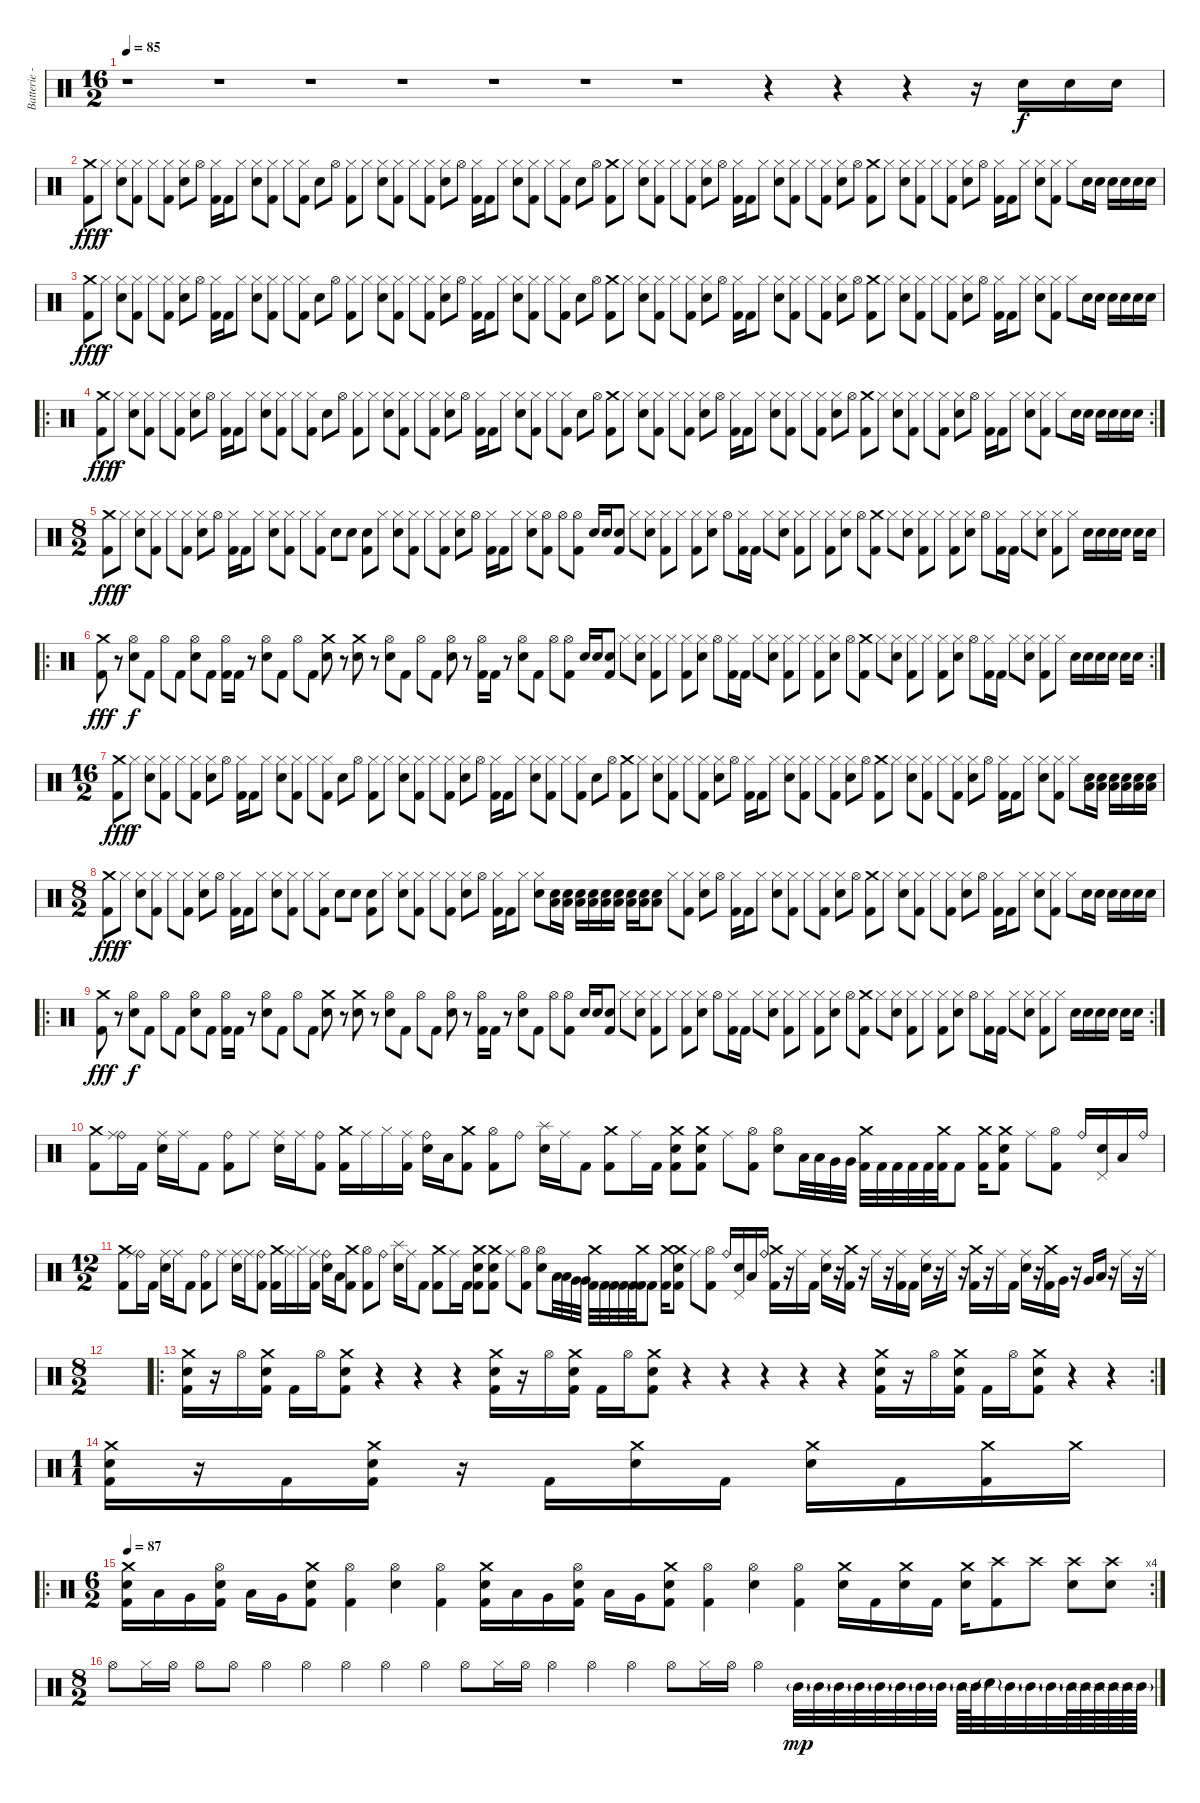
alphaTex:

\track ("Batterie - " "Batterie -") {instrument percussion}
\staff {score}
\articulation defaults
\ts (16 2)
\tempo 85
\clef neutral
\ks c
r.1{dy f} r.1 r.1 r.1 r.1 r.1 r.1 r.4 r.4 r.4 r.16 "Electric Snare (hit)".16 "Electric Snare (hit)".16 "Electric Snare (hit)".16 |
("Kick (hit) 2" "Crash medium (hit)").8{dy fff} "Hi-Hat (closed)".8{dy f} ("Electric Snare (hit)" "Hi-Hat (closed)").8 ("Kick (hit) 2" "Hi-Hat (closed)").8 "Hi-Hat (closed)".8 ("Kick (hit) 2" "Hi-Hat (closed)").8 ("Electric Snare (hit)" "Hi-Hat (closed)").8 "Hi-Hat (open)".8 ("Kick (hit) 2" "Hi-Hat (closed)").16 "Kick (hit) 2".16 "Hi-Hat (closed)".8 ("Electric Snare (hit)" "Hi-Hat (closed)").8 ("Kick (hit) 2" "Hi-Hat (closed)").8 "Hi-Hat (closed)".8 ("Kick (hit) 2" "Hi-Hat (closed)").8 "Electric Snare (hit)".8 "Hi-Hat (open)".8 ("Kick (hit) 2" "Hi-Hat (closed)").8 "Hi-Hat (closed)".8 ("Electric Snare (hit)" "Hi-Hat (closed)").8 ("Kick (hit) 2" "Hi-Hat (closed)").8 "Hi-Hat (closed)".8 ("Kick (hit) 2" "Hi-Hat (closed)").8 ("Electric Snare (hit)" "Hi-Hat (closed)").8 "Hi-Hat (open)".8 ("Kick (hit) 2" "Hi-Hat (closed)").16 "Kick (hit) 2".16 "Hi-Hat (closed)".8 ("Electric Snare (hit)" "Hi-Hat (closed)").8 ("Kick (hit) 2" "Hi-Hat (closed)").8 "Hi-Hat (closed)".8 ("Kick (hit) 2" "Hi-Hat (closed)").8 "Electric Snare (hit)".8 "Hi-Hat (open)".8 ("Kick (hit) 2" "Crash medium (hit)").8 "Hi-Hat (closed)".8 ("Electric Snare (hit)" "Hi-Hat (closed)").8 ("Kick (hit) 2" "Hi-Hat (closed)").8 "Hi-Hat (closed)".8 ("Kick (hit) 2" "Hi-Hat (closed)").8 ("Electric Snare (hit)" "Hi-Hat (closed)").8 "Hi-Hat (open)".8 ("Kick (hit) 2" "Hi-Hat (closed)").16 "Kick (hit) 2".16 "Hi-Hat (closed)".8 ("Electric Snare (hit)" "Hi-Hat (closed)").8 ("Kick (hit) 2" "Hi-Hat (closed)").8 "Hi-Hat (closed)".8 ("Kick (hit) 2" "Hi-Hat (closed)").8 ("Electric Snare (hit)" "Hi-Hat (closed)").8 "Hi-Hat (open)".8 ("Crash medium (hit)" "Kick (hit) 2").8 "Hi-Hat (closed)".8 ("Electric Snare (hit)" "Hi-Hat (closed)").8 ("Kick (hit) 2" "Hi-Hat (closed)").8 "Hi-Hat (closed)".8 ("Kick (hit) 2" "Hi-Hat (closed)").8 ("Electric Snare (hit)" "Hi-Hat (closed)").8 "Hi-Hat (open)".8 ("Kick (hit) 2" "Hi-Hat (closed)").16 "Kick (hit) 2".16 "Hi-Hat (closed)".8 ("Electric Snare (hit)" "Hi-Hat (closed)").8 ("Kick (hit) 2" "Hi-Hat (closed)").8 "Hi-Hat (closed)".8 "Electric Snare (hit)".16 "Electric Snare (hit)".16 "Electric Snare (hit)".16 "Electric Snare (hit)".16 "Electric Snare (hit)".16 "Electric Snare (hit)".16 |
("Kick (hit) 2" "Crash medium (hit)").8{dy fff} "Hi-Hat (closed)".8{dy f} ("Electric Snare (hit)" "Hi-Hat (closed)").8 ("Kick (hit) 2" "Hi-Hat (closed)").8 "Hi-Hat (closed)".8 ("Kick (hit) 2" "Hi-Hat (closed)").8 ("Electric Snare (hit)" "Hi-Hat (closed)").8 "Hi-Hat (open)".8 ("Kick (hit) 2" "Hi-Hat (closed)").16 "Kick (hit) 2".16 "Hi-Hat (closed)".8 ("Electric Snare (hit)" "Hi-Hat (closed)").8 ("Kick (hit) 2" "Hi-Hat (closed)").8 "Hi-Hat (closed)".8 ("Kick (hit) 2" "Hi-Hat (closed)").8 "Electric Snare (hit)".8 "Hi-Hat (open)".8 ("Kick (hit) 2" "Hi-Hat (closed)").8 "Hi-Hat (closed)".8 ("Electric Snare (hit)" "Hi-Hat (closed)").8 ("Kick (hit) 2" "Hi-Hat (closed)").8 "Hi-Hat (closed)".8 ("Kick (hit) 2" "Hi-Hat (closed)").8 ("Electric Snare (hit)" "Hi-Hat (closed)").8 "Hi-Hat (open)".8 ("Kick (hit) 2" "Hi-Hat (closed)").16 "Kick (hit) 2".16 "Hi-Hat (closed)".8 ("Electric Snare (hit)" "Hi-Hat (closed)").8 ("Kick (hit) 2" "Hi-Hat (closed)").8 "Hi-Hat (closed)".8 ("Kick (hit) 2" "Hi-Hat (closed)").8 "Electric Snare (hit)".8 "Hi-Hat (open)".8 ("Kick (hit) 2" "Crash medium (hit)").8 "Hi-Hat (closed)".8 ("Electric Snare (hit)" "Hi-Hat (closed)").8 ("Kick (hit) 2" "Hi-Hat (closed)").8 "Hi-Hat (closed)".8 ("Kick (hit) 2" "Hi-Hat (closed)").8 ("Electric Snare (hit)" "Hi-Hat (closed)").8 "Hi-Hat (open)".8 ("Kick (hit) 2" "Hi-Hat (closed)").16 "Kick (hit) 2".16 "Hi-Hat (closed)".8 ("Electric Snare (hit)" "Hi-Hat (closed)").8 ("Kick (hit) 2" "Hi-Hat (closed)").8 "Hi-Hat (closed)".8 ("Kick (hit) 2" "Hi-Hat (closed)").8 ("Electric Snare (hit)" "Hi-Hat (closed)").8 "Hi-Hat (open)".8 ("Crash medium (hit)" "Kick (hit) 2").8 "Hi-Hat (closed)".8 ("Electric Snare (hit)" "Hi-Hat (closed)").8 ("Kick (hit) 2" "Hi-Hat (closed)").8 "Hi-Hat (closed)".8 ("Kick (hit) 2" "Hi-Hat (closed)").8 ("Electric Snare (hit)" "Hi-Hat (closed)").8 "Hi-Hat (open)".8 ("Kick (hit) 2" "Hi-Hat (closed)").16 "Kick (hit) 2".16 "Hi-Hat (closed)".8 ("Electric Snare (hit)" "Hi-Hat (closed)").8 ("Kick (hit) 2" "Hi-Hat (closed)").8 "Hi-Hat (closed)".8 "Electric Snare (hit)".16 "Electric Snare (hit)".16 "Electric Snare (hit)".16 "Electric Snare (hit)".16 "Electric Snare (hit)".16 "Electric Snare (hit)".16 |
\ro
\rc 2
("Kick (hit) 2" "Crash medium (hit)").8{dy fff} "Hi-Hat (closed)".8{dy f} ("Electric Snare (hit)" "Hi-Hat (closed)").8 ("Kick (hit) 2" "Hi-Hat (closed)").8 "Hi-Hat (closed)".8 ("Kick (hit) 2" "Hi-Hat (closed)").8 ("Electric Snare (hit)" "Hi-Hat (closed)").8 "Hi-Hat (open)".8 ("Kick (hit) 2" "Hi-Hat (closed)").16 "Kick (hit) 2".16 "Hi-Hat (closed)".8 ("Electric Snare (hit)" "Hi-Hat (closed)").8 ("Kick (hit) 2" "Hi-Hat (closed)").8 "Hi-Hat (closed)".8 ("Kick (hit) 2" "Hi-Hat (closed)").8 "Electric Snare (hit)".8 "Hi-Hat (open)".8 ("Kick (hit) 2" "Hi-Hat (closed)").8 "Hi-Hat (closed)".8 ("Electric Snare (hit)" "Hi-Hat (closed)").8 ("Kick (hit) 2" "Hi-Hat (closed)").8 "Hi-Hat (closed)".8 ("Kick (hit) 2" "Hi-Hat (closed)").8 ("Electric Snare (hit)" "Hi-Hat (closed)").8 "Hi-Hat (open)".8 ("Kick (hit) 2" "Hi-Hat (closed)").16 "Kick (hit) 2".16 "Hi-Hat (closed)".8 ("Electric Snare (hit)" "Hi-Hat (closed)").8 ("Kick (hit) 2" "Hi-Hat (closed)").8 "Hi-Hat (closed)".8 ("Kick (hit) 2" "Hi-Hat (closed)").8 "Electric Snare (hit)".8 "Hi-Hat (open)".8 ("Kick (hit) 2" "Crash medium (hit)").8 "Hi-Hat (closed)".8 ("Electric Snare (hit)" "Hi-Hat (closed)").8 ("Kick (hit) 2" "Hi-Hat (closed)").8 "Hi-Hat (closed)".8 ("Kick (hit) 2" "Hi-Hat (closed)").8 ("Electric Snare (hit)" "Hi-Hat (closed)").8 "Hi-Hat (open)".8 ("Kick (hit) 2" "Hi-Hat (closed)").16 "Kick (hit) 2".16 "Hi-Hat (closed)".8 ("Electric Snare (hit)" "Hi-Hat (closed)").8 ("Kick (hit) 2" "Hi-Hat (closed)").8 "Hi-Hat (closed)".8 ("Kick (hit) 2" "Hi-Hat (closed)").8 ("Electric Snare (hit)" "Hi-Hat (closed)").8 "Hi-Hat (open)".8 ("Crash medium (hit)" "Kick (hit) 2").8 "Hi-Hat (closed)".8 ("Electric Snare (hit)" "Hi-Hat (closed)").8 ("Kick (hit) 2" "Hi-Hat (closed)").8 "Hi-Hat (closed)".8 ("Kick (hit) 2" "Hi-Hat (closed)").8 ("Electric Snare (hit)" "Hi-Hat (closed)").8 "Hi-Hat (open)".8 ("Kick (hit) 2" "Hi-Hat (closed)").16 "Kick (hit) 2".16 "Hi-Hat (closed)".8 ("Electric Snare (hit)" "Hi-Hat (closed)").8 ("Kick (hit) 2" "Hi-Hat (closed)").8 "Hi-Hat (closed)".8 "Electric Snare (hit)".16 "Electric Snare (hit)".16 "Electric Snare (hit)".16 "Electric Snare (hit)".16 "Electric Snare (hit)".16 "Electric Snare (hit)".16 |
\ts (8 2)
("Kick (hit) 2" "Crash medium (hit)").8{dy fff} "Hi-Hat (closed)".8{dy f} ("Electric Snare (hit)" "Hi-Hat (closed)").8 ("Kick (hit) 2" "Hi-Hat (closed)").8 "Hi-Hat (closed)".8 ("Kick (hit) 2" "Hi-Hat (closed)").8 ("Electric Snare (hit)" "Hi-Hat (closed)").8 "Hi-Hat (open)".8 ("Kick (hit) 2" "Hi-Hat (closed)").16 "Kick (hit) 2".16 "Hi-Hat (closed)".8 ("Electric Snare (hit)" "Hi-Hat (closed)").8 ("Kick (hit) 2" "Hi-Hat (closed)").8 "Hi-Hat (closed)".8 ("Kick (hit) 2" "Hi-Hat (closed)").8 "Electric Snare (hit)".8 "Electric Snare (hit)".8 ("Kick (hit) 2" "Electric Snare (hit)").8 "Hi-Hat (closed)".8 ("Electric Snare (hit)" "Hi-Hat (closed)").8 ("Kick (hit) 2" "Hi-Hat (closed)").8 "Hi-Hat (closed)".8 ("Kick (hit) 2" "Hi-Hat (closed)").8 ("Electric Snare (hit)" "Hi-Hat (closed)").8 "Hi-Hat (open)".8 ("Kick (hit) 2" "Hi-Hat (closed)").16 "Kick (hit) 2".16 "Hi-Hat (closed)".8 ("Electric Snare (hit)" "Hi-Hat (closed)").8 ("Kick (hit) 2" "Hi-Hat (open)").8 "Hi-Hat (open)".8 ("Kick (hit) 2" "Hi-Hat (open)").8 "Electric Snare (hit)".16 "Electric Snare (hit)".16 ("Kick (hit) 2" "Electric Snare (hit)").8 "Hi-Hat (closed)".8 ("Electric Snare (hit)" "Hi-Hat (closed)").8 ("Kick (hit) 2" "Hi-Hat (closed)").8 "Hi-Hat (closed)".8 ("Kick (hit) 2" "Hi-Hat (closed)").8 ("Electric Snare (hit)" "Hi-Hat (closed)").8 "Hi-Hat (open)".8 ("Kick (hit) 2" "Hi-Hat (closed)").16 "Kick (hit) 2".16 "Hi-Hat (closed)".8 ("Electric Snare (hit)" "Hi-Hat (closed)").8 ("Kick (hit) 2" "Hi-Hat (closed)").8 "Hi-Hat (closed)".8 ("Kick (hit) 2" "Hi-Hat (closed)").8 ("Electric Snare (hit)" "Hi-Hat (closed)").8 "Hi-Hat (open)".8 ("Crash medium (hit)" "Kick (hit) 2").8 "Hi-Hat (closed)".8 ("Electric Snare (hit)" "Hi-Hat (closed)").8 ("Kick (hit) 2" "Hi-Hat (closed)").8 "Hi-Hat (closed)".8 ("Kick (hit) 2" "Hi-Hat (closed)").8 ("Electric Snare (hit)" "Hi-Hat (closed)").8 "Hi-Hat (open)".8 ("Kick (hit) 2" "Hi-Hat (closed)").16 "Kick (hit) 2".16 "Hi-Hat (closed)".8 ("Electric Snare (hit)" "Hi-Hat (closed)").8 ("Kick (hit) 2" "Hi-Hat (closed)").8 "Hi-Hat (closed)".8 "Electric Snare (hit)".16 "Electric Snare (hit)".16 "Electric Snare (hit)".16 "Electric Snare (hit)".16 "Electric Snare (hit)".16 "Electric Snare (hit)".16 |
\ro
\rc 2
("Kick (hit) 2" "Crash medium (hit)").8{dy fff} r.8 ("Electric Snare (hit)" "Hi-Hat (open)").8{dy f} "Kick (hit) 2".8 "Hi-Hat (open)".8 "Kick (hit) 2".8 ("Electric Snare (hit)" "Hi-Hat (open)").8 "Kick (hit) 2".8 ("Kick (hit) 2" "Hi-Hat (open)").16 "Kick (hit) 2".16 r.8 ("Electric Snare (hit)" "Hi-Hat (open)").8 "Kick (hit) 2".8 "Hi-Hat (open)".8 "Kick (hit) 2".8 ("Crash medium (hit)" "Electric Snare (hit)").8 r.8 ("Crash medium (hit)" "Electric Snare (hit)").8 r.8 ("Electric Snare (hit)" "Hi-Hat (open)").8 "Kick (hit) 2".8 "Hi-Hat (open)".8 "Kick (hit) 2".8 ("Electric Snare (hit)" "Hi-Hat (open)").8 r.8 ("Kick (hit) 2" "Hi-Hat (open)").16 "Kick (hit) 2".16 r.8 ("Electric Snare (hit)" "Hi-Hat (open)").8 "Kick (hit) 2".8 "Hi-Hat (open)".8 ("Kick (hit) 2" "Hi-Hat (open)").8 "Electric Snare (hit)".16 "Electric Snare (hit)".16 ("Kick (hit) 2" "Electric Snare (hit)").8 "Hi-Hat (closed)".8 ("Electric Snare (hit)" "Hi-Hat (closed)").8 ("Kick (hit) 2" "Hi-Hat (closed)").8 "Hi-Hat (closed)".8 ("Kick (hit) 2" "Hi-Hat (closed)").8 ("Electric Snare (hit)" "Hi-Hat (closed)").8 "Hi-Hat (open)".8 ("Kick (hit) 2" "Hi-Hat (closed)").16 "Kick (hit) 2".16 "Hi-Hat (closed)".8 ("Electric Snare (hit)" "Hi-Hat (closed)").8 ("Kick (hit) 2" "Hi-Hat (closed)").8 "Hi-Hat (closed)".8 ("Kick (hit) 2" "Hi-Hat (closed)").8 ("Electric Snare (hit)" "Hi-Hat (closed)").8 "Hi-Hat (open)".8 ("Crash medium (hit)" "Kick (hit) 2").8 "Hi-Hat (closed)".8 ("Electric Snare (hit)" "Hi-Hat (closed)").8 ("Kick (hit) 2" "Hi-Hat (closed)").8 "Hi-Hat (closed)".8 ("Kick (hit) 2" "Hi-Hat (closed)").8 ("Electric Snare (hit)" "Hi-Hat (closed)").8 "Hi-Hat (open)".8 ("Kick (hit) 2" "Hi-Hat (closed)").16 "Kick (hit) 2".16 "Hi-Hat (closed)".8 ("Electric Snare (hit)" "Hi-Hat (closed)").8 ("Kick (hit) 2" "Hi-Hat (closed)").8 "Hi-Hat (closed)".8 "Electric Snare (hit)".16 "Electric Snare (hit)".16 "Electric Snare (hit)".16 "Electric Snare (hit)".16 "Electric Snare (hit)".16 "Electric Snare (hit)".16 |
\ts (16 2)
("Kick (hit) 2" "Crash medium (hit)").8{dy fff} "Hi-Hat (closed)".8{dy f} ("Electric Snare (hit)" "Hi-Hat (closed)").8 ("Kick (hit) 2" "Hi-Hat (closed)").8 "Hi-Hat (closed)".8 ("Kick (hit) 2" "Hi-Hat (closed)").8 ("Electric Snare (hit)" "Hi-Hat (closed)").8 "Hi-Hat (open)".8 ("Kick (hit) 2" "Hi-Hat (closed)").16 "Kick (hit) 2".16 "Hi-Hat (closed)".8 ("Electric Snare (hit)" "Hi-Hat (closed)").8 ("Kick (hit) 2" "Hi-Hat (closed)").8 "Hi-Hat (closed)".8 ("Kick (hit) 2" "Hi-Hat (closed)").8 "Electric Snare (hit)".8 "Hi-Hat (open)".8 ("Kick (hit) 2" "Hi-Hat (closed)").8 "Hi-Hat (closed)".8 ("Electric Snare (hit)" "Hi-Hat (closed)").8 ("Kick (hit) 2" "Hi-Hat (closed)").8 "Hi-Hat (closed)".8 ("Kick (hit) 2" "Hi-Hat (closed)").8 ("Electric Snare (hit)" "Hi-Hat (closed)").8 "Hi-Hat (open)".8 ("Kick (hit) 2" "Hi-Hat (closed)").16 "Kick (hit) 2".16 "Hi-Hat (closed)".8 ("Electric Snare (hit)" "Hi-Hat (closed)").8 ("Kick (hit) 2" "Hi-Hat (closed)").8 "Hi-Hat (closed)".8 ("Kick (hit) 2" "Hi-Hat (closed)").8 "Electric Snare (hit)".8 "Hi-Hat (open)".8 ("Kick (hit) 2" "Crash medium (hit)").8 "Hi-Hat (closed)".8 ("Electric Snare (hit)" "Hi-Hat (closed)").8 ("Kick (hit) 2" "Hi-Hat (closed)").8 "Hi-Hat (closed)".8 ("Kick (hit) 2" "Hi-Hat (closed)").8 ("Electric Snare (hit)" "Hi-Hat (closed)").8 "Hi-Hat (open)".8 ("Kick (hit) 2" "Hi-Hat (closed)").16 "Kick (hit) 2".16 "Hi-Hat (closed)".8 ("Electric Snare (hit)" "Hi-Hat (closed)").8 ("Kick (hit) 2" "Hi-Hat (closed)").8 "Hi-Hat (closed)".8 ("Kick (hit) 2" "Hi-Hat (closed)").8 ("Electric Snare (hit)" "Hi-Hat (closed)").8 "Hi-Hat (open)".8 ("Crash medium (hit)" "Kick (hit) 2").8 "Hi-Hat (closed)".8 ("Electric Snare (hit)" "Hi-Hat (closed)").8 ("Kick (hit) 2" "Hi-Hat (closed)").8 "Hi-Hat (closed)".8 ("Kick (hit) 2" "Hi-Hat (closed)").8 ("Electric Snare (hit)" "Hi-Hat (closed)").8 "Hi-Hat (open)".8 ("Kick (hit) 2" "Hi-Hat (closed)").16 "Kick (hit) 2".16 "Hi-Hat (closed)".8 ("Electric Snare (hit)" "Hi-Hat (closed)").8 ("Kick (hit) 2" "Hi-Hat (closed)").8 "Hi-Hat (closed)".8 ("Low Floor Tom (hit)" "Electric Snare (hit)").16 ("Low Floor Tom (hit)" "Electric Snare (hit)").16 ("Low Floor Tom (hit)" "Electric Snare (hit)").16 ("Low Floor Tom (hit)" "Electric Snare (hit)").16 ("Low Floor Tom (hit)" "Electric Snare (hit)").16 ("Low Floor Tom (hit)" "Electric Snare (hit)").16 |
\ts (8 2)
("Kick (hit) 2" "Crash medium (hit)").8{dy fff} "Hi-Hat (closed)".8{dy f} ("Electric Snare (hit)" "Hi-Hat (closed)").8 ("Kick (hit) 2" "Hi-Hat (closed)").8 "Hi-Hat (closed)".8 ("Kick (hit) 2" "Hi-Hat (closed)").8 ("Electric Snare (hit)" "Hi-Hat (closed)").8 "Hi-Hat (open)".8 ("Kick (hit) 2" "Hi-Hat (closed)").16 "Kick (hit) 2".16 "Hi-Hat (closed)".8 ("Electric Snare (hit)" "Hi-Hat (closed)").8 ("Kick (hit) 2" "Hi-Hat (closed)").8 "Hi-Hat (closed)".8 ("Kick (hit) 2" "Hi-Hat (closed)").8 "Electric Snare (hit)".8 "Electric Snare (hit)".8 ("Kick (hit) 2" "Electric Snare (hit)").8 "Hi-Hat (closed)".8 ("Electric Snare (hit)" "Hi-Hat (closed)").8 ("Kick (hit) 2" "Hi-Hat (closed)").8 "Hi-Hat (closed)".8 ("Kick (hit) 2" "Hi-Hat (closed)").8 ("Electric Snare (hit)" "Hi-Hat (closed)").8 "Hi-Hat (open)".8 ("Kick (hit) 2" "Hi-Hat (closed)").16 "Kick (hit) 2".16 "Hi-Hat (closed)".8 ("Electric Snare (hit)" "Hi-Hat (closed)").8 ("Electric Snare (hit)" "Low Floor Tom (hit)").16 ("Electric Snare (hit)" "Low Floor Tom (hit)").16 ("Electric Snare (hit)" "Low Floor Tom (hit)").16 ("Electric Snare (hit)" "Low Floor Tom (hit)").16 ("Electric Snare (hit)" "Low Floor Tom (hit)").16 ("Electric Snare (hit)" "Low Floor Tom (hit)").16 ("Electric Snare (hit)" "Low Floor Tom (hit)").16 ("Electric Snare (hit)" "Low Floor Tom (hit)").16 ("Electric Snare (hit)" "Low Floor Tom (hit)").8 "Hi-Hat (closed)".8 ("Kick (hit) 2" "Hi-Hat (closed)").8 ("Electric Snare (hit)" "Hi-Hat (closed)").8 "Hi-Hat (open)".8 ("Kick (hit) 2" "Hi-Hat (closed)").16 "Kick (hit) 2".16 "Hi-Hat (closed)".8 ("Electric Snare (hit)" "Hi-Hat (closed)").8 ("Kick (hit) 2" "Hi-Hat (closed)").8 "Hi-Hat (closed)".8 ("Kick (hit) 2" "Hi-Hat (closed)").8 ("Electric Snare (hit)" "Hi-Hat (closed)").8 "Hi-Hat (open)".8 ("Crash medium (hit)" "Kick (hit) 2").8 "Hi-Hat (closed)".8 ("Electric Snare (hit)" "Hi-Hat (closed)").8 ("Kick (hit) 2" "Hi-Hat (closed)").8 "Hi-Hat (closed)".8 ("Kick (hit) 2" "Hi-Hat (closed)").8 ("Electric Snare (hit)" "Hi-Hat (closed)").8 "Hi-Hat (open)".8 ("Kick (hit) 2" "Hi-Hat (closed)").16 "Kick (hit) 2".16 "Hi-Hat (closed)".8 ("Electric Snare (hit)" "Hi-Hat (closed)").8 ("Kick (hit) 2" "Hi-Hat (closed)").8 "Hi-Hat (closed)".8 "Electric Snare (hit)".16 "Electric Snare (hit)".16 "Electric Snare (hit)".16 "Electric Snare (hit)".16 "Electric Snare (hit)".16 "Electric Snare (hit)".16 |
\ro
\rc 2
("Kick (hit) 2" "Crash medium (hit)").8{dy fff} r.8 ("Electric Snare (hit)" "Hi-Hat (open)").8{dy f} "Kick (hit) 2".8 "Hi-Hat (open)".8 "Kick (hit) 2".8 ("Electric Snare (hit)" "Hi-Hat (open)").8 "Kick (hit) 2".8 ("Kick (hit) 2" "Hi-Hat (open)").16 "Kick (hit) 2".16 r.8 ("Electric Snare (hit)" "Hi-Hat (open)").8 "Kick (hit) 2".8 "Hi-Hat (open)".8 "Kick (hit) 2".8 ("Crash medium (hit)" "Electric Snare (hit)").8 r.8 ("Crash medium (hit)" "Electric Snare (hit)").8 r.8 ("Electric Snare (hit)" "Hi-Hat (open)").8 "Kick (hit) 2".8 "Hi-Hat (open)".8 "Kick (hit) 2".8 ("Electric Snare (hit)" "Hi-Hat (open)").8 r.8 ("Kick (hit) 2" "Hi-Hat (open)").16 "Kick (hit) 2".16 r.8 ("Electric Snare (hit)" "Hi-Hat (open)").8 "Kick (hit) 2".8 "Hi-Hat (open)".8 ("Kick (hit) 2" "Hi-Hat (open)").8 "Electric Snare (hit)".16 "Electric Snare (hit)".16 ("Kick (hit) 2" "Electric Snare (hit)").8 "Hi-Hat (closed)".8 ("Electric Snare (hit)" "Hi-Hat (closed)").8 ("Kick (hit) 2" "Hi-Hat (closed)").8 "Hi-Hat (closed)".8 ("Kick (hit) 2" "Hi-Hat (closed)").8 ("Electric Snare (hit)" "Hi-Hat (closed)").8 "Hi-Hat (open)".8 ("Kick (hit) 2" "Hi-Hat (closed)").16 "Kick (hit) 2".16 "Hi-Hat (closed)".8 ("Electric Snare (hit)" "Hi-Hat (closed)").8 ("Kick (hit) 2" "Hi-Hat (closed)").8 "Hi-Hat (closed)".8 ("Kick (hit) 2" "Hi-Hat (closed)").8 ("Electric Snare (hit)" "Hi-Hat (closed)").8 "Hi-Hat (open)".8 ("Crash medium (hit)" "Kick (hit) 2").8 "Hi-Hat (closed)".8 ("Electric Snare (hit)" "Hi-Hat (closed)").8 ("Kick (hit) 2" "Hi-Hat (closed)").8 "Hi-Hat (closed)".8 ("Kick (hit) 2" "Hi-Hat (closed)").8 ("Electric Snare (hit)" "Hi-Hat (closed)").8 "Hi-Hat (open)".8 ("Kick (hit) 2" "Hi-Hat (closed)").16 "Kick (hit) 2".16 "Hi-Hat (closed)".8 ("Electric Snare (hit)" "Hi-Hat (closed)").8 ("Kick (hit) 2" "Hi-Hat (closed)").8 "Hi-Hat (closed)".8 "Electric Snare (hit)".16 "Electric Snare (hit)".16 "Electric Snare (hit)".16 "Electric Snare (hit)".16 "Electric Snare (hit)".16 "Electric Snare (hit)".16 |
("Kick (hit) 2" "Crash medium (hit)").8 ("Ride (bell)" "Ride (middle)").16 "Kick (hit) 2".16 ("Ride (middle)" "Electric Snare (hit)").16 "Ride (middle)".16 "Kick (hit) 2".8 ("Kick (hit) 2" "Ride (bell)").8 "Ride (middle)".8 ("Ride (middle)" "Electric Snare (hit)").16 "Ride (middle)".16 ("Ride (bell)" "Kick (hit) 2").8 ("Crash medium (hit)" "Kick (hit) 2").16 "Ride (middle)".16 "Hi-Hat (closed)".16 ("Ride (middle)" "Kick (hit) 2").16 ("Ride (bell)" "Electric Snare (hit)").16 "Low Tom (hit)".16 ("Crash medium (hit)" "Kick (hit) 2").8 ("Kick (hit) 2" "Hi-Hat (open)").8 "Ride (bell)".8 ("Splash (hit)" "Electric Snare (hit)").16 "Ride (middle)".16 "Kick (hit) 2".8 ("Kick (hit) 2" "Crash medium (hit)").8 "Ride (middle)".16 "Kick (hit) 2".16 ("Kick (hit) 2" "Crash medium (hit)" "Electric Snare (hit)").8 ("Kick (hit) 2" "Crash medium (hit)" "Electric Snare (hit)").8 "Ride (middle)".8 ("Hi-Hat (open)" "Kick (hit) 2").8 ("Electric Snare (hit)" "Hi-Hat (open)").8 "Low Tom (hit)".32 "Low Tom (hit)".32 "Very Low Tom (hit)".32 "Very Low Tom (hit)".32 ("Crash medium (hit)" "Kick (hit) 2").32 "Kick (hit) 2".32 "Kick (hit) 2".32 "Kick (hit) 2".32 "Kick (hit) 2".32 ("Crash medium (hit)" "Kick (hit) 2").32 "Kick (hit) 2".8 ("Kick (hit) 2" "Crash medium (hit)").16 ("Electric Snare (hit)" "Kick (hit) 2" "Crash medium (hit)").8 "Ride (middle)".8 ("Kick (hit) 2" "Hi-Hat (open)").8 "Ride (bell)".16 ("Electric Snare (hit)" "Pedal Hi-Hat (hit)").16 "Low Tom (hit)".16 "Ride (bell)".16 |
\ts (12 2)
("Kick (hit) 2" "Crash medium (hit)").8 ("Ride (bell)" "Ride (middle)").16 "Kick (hit) 2".16 ("Ride (middle)" "Electric Snare (hit)").16 "Ride (middle)".16 "Kick (hit) 2".8 ("Kick (hit) 2" "Ride (bell)").8 "Ride (middle)".8 ("Ride (middle)" "Electric Snare (hit)").16 "Ride (middle)".16 ("Ride (bell)" "Kick (hit) 2").8 ("Crash medium (hit)" "Kick (hit) 2").16 "Ride (middle)".16 "Hi-Hat (closed)".16 ("Ride (middle)" "Kick (hit) 2").16 ("Ride (bell)" "Electric Snare (hit)").16 "Low Tom (hit)".16 ("Crash medium (hit)" "Kick (hit) 2").8 ("Kick (hit) 2" "Hi-Hat (open)").8 "Ride (bell)".8 ("Splash (hit)" "Electric Snare (hit)").16 "Ride (middle)".16 "Kick (hit) 2".8 ("Kick (hit) 2" "Crash medium (hit)").8 "Ride (middle)".16 "Kick (hit) 2".16 ("Kick (hit) 2" "Crash medium (hit)" "Electric Snare (hit)").8 ("Kick (hit) 2" "Crash medium (hit)" "Electric Snare (hit)").8 "Ride (middle)".8 ("Hi-Hat (open)" "Kick (hit) 2").8 ("Electric Snare (hit)" "Hi-Hat (open)").8 "Low Tom (hit)".32 "Low Tom (hit)".32 "Very Low Tom (hit)".32 "Very Low Tom (hit)".32 ("Crash medium (hit)" "Kick (hit) 2").32 "Kick (hit) 2".32 "Kick (hit) 2".32 "Kick (hit) 2".32 "Kick (hit) 2".32 ("Crash medium (hit)" "Kick (hit) 2").32 "Kick (hit) 2".8 ("Kick (hit) 2" "Crash medium (hit)").16 ("Electric Snare (hit)" "Kick (hit) 2" "Crash medium (hit)").8 "Ride (middle)".8 ("Kick (hit) 2" "Hi-Hat (open)").8 "Ride (bell)".16 ("Electric Snare (hit)" "Pedal Hi-Hat (hit)").16 "Low Tom (hit)".16 "Ride (bell)".16 ("Kick (hit) 2" "Crash medium (hit)").16 r.16 "Ride (middle)".16 "Kick (hit) 2".16 ("Electric Snare (hit)" "Ride (middle)").16 r.16 ("Kick (hit) 2" "Crash medium (hit)").16 r.16 "Ride (middle)".16 r.16 ("Kick (hit) 2" "Ride (middle)").16 "Kick (hit) 2".16 ("Electric Snare (hit)" "Ride (middle)").16 r.16 "Ride (middle)".16 r.16 ("Kick (hit) 2" "Crash medium (hit)").16 r.16 "Ride (middle)".16 "Kick (hit) 2".16 ("Electric Snare (hit)" "Ride (middle)").16 r.16 ("Kick (hit) 2" "Crash medium (hit)").16 "Very Low Tom (hit)".16 r.16 "Very Low Tom (hit)".16 "Low Tom (hit)".16 r.16 "Ride (middle)".16 r.16 "Ride (middle)".16 |
\ts (8 2)
|
\ro
\rc 2
("Electric Snare (hit)" "Kick (hit) 2" "Crash medium (hit)").16 r.16 "Hi-Hat (open)".16 ("Kick (hit) 2" "Electric Snare (hit)" "Crash medium (hit)").16 "Kick (hit) 2".16 "Hi-Hat (open)".16 ("Kick (hit) 2" "Electric Snare (hit)" "Crash medium (hit)").8 r.4 r.4 r.4 ("Electric Snare (hit)" "Kick (hit) 2" "Crash medium (hit)").16 r.16 "Hi-Hat (open)".16 ("Kick (hit) 2" "Crash medium (hit)" "Electric Snare (hit)").16 "Kick (hit) 2".16 "Hi-Hat (open)".16 ("Kick (hit) 2" "Electric Snare (hit)" "Crash medium (hit)").8 r.4 r.4 r.4 r.4 r.4 ("Electric Snare (hit)" "Kick (hit) 2" "Crash medium (hit)").16 r.16 "Hi-Hat (open)".16 ("Kick (hit) 2" "Electric Snare (hit)" "Crash medium (hit)").16 "Kick (hit) 2".16 "Hi-Hat (open)".16 ("Kick (hit) 2" "Electric Snare (hit)" "Crash medium (hit)").8 r.4 r.4 |
\ts (1 1)
("Electric Snare (hit)" "Kick (hit) 2" "Crash medium (hit)").16 r.16 "Kick (hit) 2".16 ("Electric Snare (hit)" "Kick (hit) 2" "Crash medium (hit)").16 r.16 "Kick (hit) 2".16 ("Electric Snare (hit)" "Crash medium (hit)").16 "Kick (hit) 2".16 ("Crash medium (hit)" "Electric Snare (hit)").16 "Kick (hit) 2".16 ("Kick (hit) 2" "Crash medium (hit)").16 "Crash medium (hit)".16 |
\ro
\rc 4
\ts (6 2)
\tempo 87
("Electric Snare (hit)" "Kick (hit) 2" "Crash medium (hit)").16 "Low Tom (hit)".16 "Very Low Tom (hit)".16 ("Kick (hit) 2" "Electric Snare (hit)" "Hi-Hat (open)").16 "Low Tom (hit)".16 "Very Low Tom (hit)".16 ("Kick (hit) 2" "Electric Snare (hit)" "Crash medium (hit)").8 ("Kick (hit) 2" "Hi-Hat (open)").4 ("Electric Snare (hit)" "Hi-Hat (open)").4 ("Kick (hit) 2" "Hi-Hat (open)").4 ("Electric Snare (hit)" "Kick (hit) 2" "Crash medium (hit)").16 "Low Tom (hit)".16 "Very Low Tom (hit)".16 ("Kick (hit) 2" "Hi-Hat (open)" "Electric Snare (hit)").16 "Low Tom (hit)".16 "Very Low Tom (hit)".16 ("Kick (hit) 2" "Electric Snare (hit)" "Crash medium (hit)").8 ("Kick (hit) 2" "Hi-Hat (open)").4 ("Electric Snare (hit)" "Hi-Hat (open)").4 ("Kick (hit) 2" "Hi-Hat (open)").4 ("Electric Snare (hit)" "Crash medium (hit)").16 "Kick (hit) 2".16 ("Electric Snare (hit)" "Crash medium (hit)").16 "Kick (hit) 2".16 ("Electric Snare (hit)" "Crash medium (hit)").16 ("Kick (hit) 2" "Crash high (hit)").8 "Crash high (hit)".8 ("Electric Snare (hit)" "Crash high (hit)").8 ("Electric Snare (hit)" "Crash high (hit)").8 |
\ts (8 2)
"Hi-Hat (open)".8 "Hi-Hat (closed)".16 "Hi-Hat (open)".16 "Hi-Hat (open)".8 "Hi-Hat (open)".8 "Hi-Hat (open)".4 "Hi-Hat (open)".4 "Hi-Hat (open)".4 "Hi-Hat (open)".4 "Hi-Hat (open)".4 "Hi-Hat (open)".8 "Hi-Hat (closed)".16 "Hi-Hat (open)".16 "Hi-Hat (open)".4 "Hi-Hat (open)".4 "Hi-Hat (open)".4 "Hi-Hat (open)".8 "Hi-Hat (closed)".16 "Hi-Hat (open)".16 "Hi-Hat (open)".4 "Mid Tom (hit)"{g}.32{dy mp} "Mid Tom (hit)"{g}.32 "Mid Tom (hit)"{g}.32 "Mid Tom (hit)"{g}.32 "Mid Tom (hit)"{g}.32 "Mid Tom (hit)"{g}.32 "Mid Tom (hit)"{g}.32 "Mid Tom (hit)"{g}.32 "Mid Tom (hit)"{g}.64 "Mid Tom (hit)"{g}.64 "Snare (hit)"{g}.32 "Mid Tom (hit)"{g}.32 "Mid Tom (hit)"{g}.32 "Mid Tom (hit)"{g}.32 "Mid Tom (hit)"{g}.64 "Mid Tom (hit)"{g}.64 "Mid Tom (hit)"{g}.64 "Mid Tom (hit)"{g}.64 "Mid Tom (hit)"{g}.64 "Mid Tom (hit)"{g}.64
